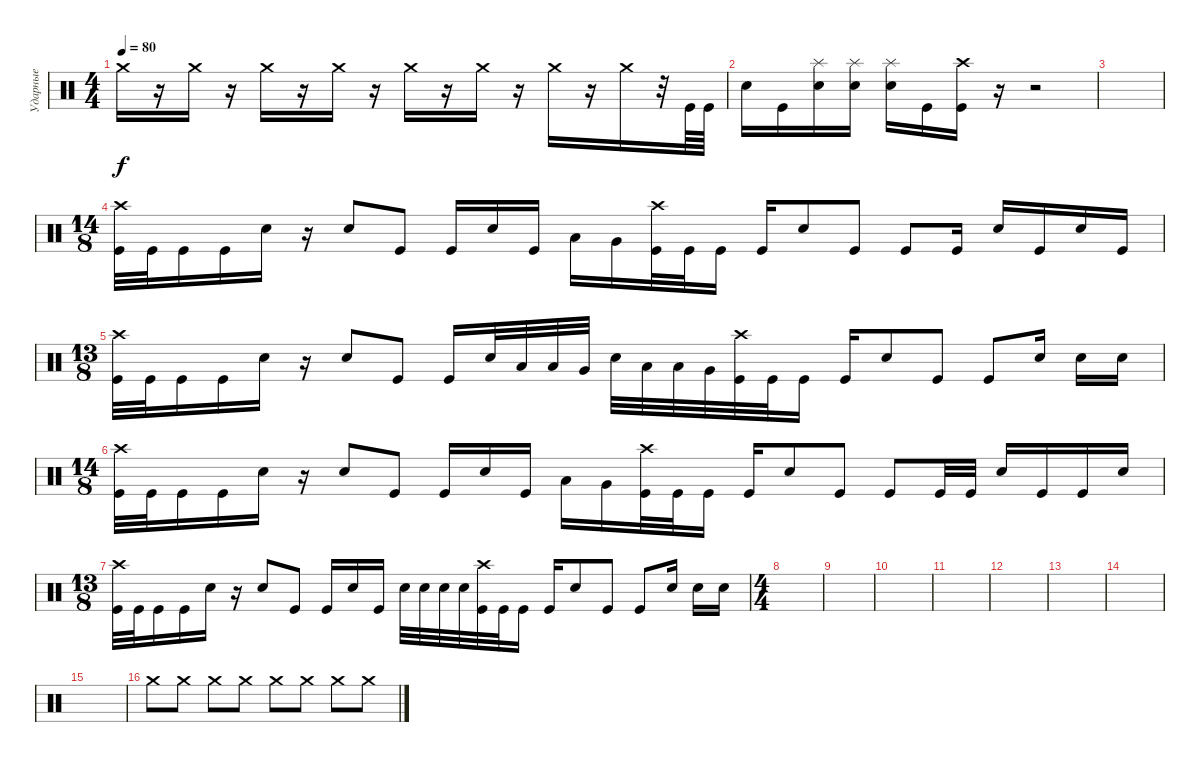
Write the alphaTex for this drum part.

\track ("Ударные" "Ударные") {instrument percussion}
\staff {score}
\articulation defaults
\ts (4 4)
\tempo 80
\clef neutral
\ks c "Crash medium (hit)".16{dy f}
r.16 "Crash medium (hit)".16 r.16 "Crash medium (hit)".16 r.16 "Crash medium (hit)".16 r.16 "Crash medium (hit)".16 r.16 "Crash medium (hit)".16 r.16 "Crash medium (hit)".16 r.16 "Crash medium (hit)".16 r.32 "Kick (hit)".64 "Kick (hit)".64 |
"Snare (hit) 2".16 "Kick (hit)".16 ("Snare (hit) 2" "Splash (hit)").16 ("Snare (hit) 2" "Splash (hit)").16 ("Snare (hit) 2" "Splash (hit)").16 "Kick (hit)".16 ("Kick (hit)" "Crash high (hit)").16 r.16 r.2 |
|
\ts (14 8)
("Kick (hit)" "Crash high (hit)").32 "Kick (hit)".32 "Kick (hit)".16 "Kick (hit)".16 "Snare (hit) 2".16 r.16 "Snare (hit) 2".8 "Kick (hit)".8 "Kick (hit)".16 "Snare (hit) 2".16 "Kick (hit)".16 "Low Tom (hit)".16 "Very Low Tom (hit)".16 ("Kick (hit)" "Crash high (hit)").32 "Kick (hit)".32 "Kick (hit)".16 "Kick (hit)".16 "Snare (hit) 2".8 "Kick (hit)".8 "Kick (hit)".8 "Kick (hit)".16 "Snare (hit) 2".16 "Kick (hit)".16 "Snare (hit) 2".16 "Kick (hit)".16 |
\ts (13 8)
("Kick (hit)" "Crash high (hit)").32 "Kick (hit)".32 "Kick (hit)".16 "Kick (hit)".16 "Snare (hit) 2".16 r.16 "Snare (hit) 2".8 "Kick (hit)".8 "Kick (hit)".16 "Snare (hit) 2".32 "Low Tom (hit)".32 "Low Tom (hit)".32 "Very Low Tom (hit)".32 "Snare (hit) 2".32 "Low Tom (hit)".32 "Low Tom (hit)".32 "Very Low Tom (hit)".32 ("Kick (hit)" "Crash high (hit)").32 "Kick (hit)".32 "Kick (hit)".16 "Kick (hit)".16 "Snare (hit) 2".8 "Kick (hit)".8 "Kick (hit)".8 "Snare (hit) 2".16 "Snare (hit) 2".16 "Snare (hit) 2".16 |
\ts (14 8)
("Kick (hit)" "Crash high (hit)").32 "Kick (hit)".32 "Kick (hit)".16 "Kick (hit)".16 "Snare (hit) 2".16 r.16 "Snare (hit) 2".8 "Kick (hit)".8 "Kick (hit)".16 "Snare (hit) 2".16 "Kick (hit)".16 "Low Tom (hit)".16 "Very Low Tom (hit)".16 ("Kick (hit)" "Crash high (hit)").32 "Kick (hit)".32 "Kick (hit)".16 "Kick (hit)".16 "Snare (hit) 2".8 "Kick (hit)".8 "Kick (hit)".8 "Kick (hit)".32 "Kick (hit)".32 "Snare (hit) 2".16 "Kick (hit)".16 "Kick (hit)".16 "Snare (hit) 2".16 |
\ts (13 8)
("Kick (hit)" "Crash high (hit)").32 "Kick (hit)".32 "Kick (hit)".16 "Kick (hit)".16 "Snare (hit) 2".16 r.16 "Snare (hit) 2".8 "Kick (hit)".8 "Kick (hit)".16 "Snare (hit) 2".16 "Kick (hit)".16 "Snare (hit) 2".32 "Snare (hit) 2".32 "Snare (hit) 2".32 "Snare (hit) 2".32 ("Kick (hit)" "Crash high (hit)").32 "Kick (hit)".32 "Kick (hit)".16 "Kick (hit)".16 "Snare (hit) 2".8 "Kick (hit)".8 "Kick (hit)".8 "Snare (hit) 2".16 "Snare (hit) 2".16 "Snare (hit) 2".16 |
\ts (4 4)
|
|
|
|
|
|
|
|
"Crash medium (hit)".8 "Crash medium (hit)".8 "Crash medium (hit)".8 "Crash medium (hit)".8 "Crash medium (hit)".8 "Crash medium (hit)".8 "Crash medium (hit)".8 "Crash medium (hit)".8
